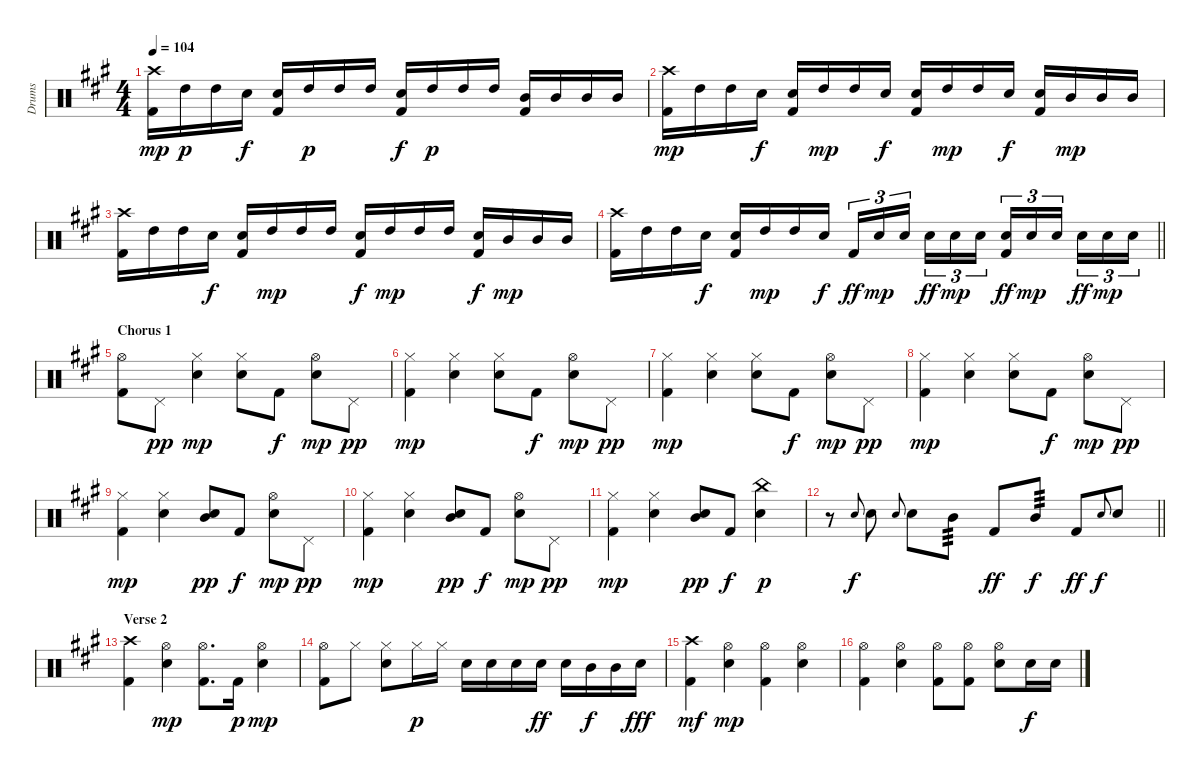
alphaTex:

\track ("Drums" "Drums") {instrument percussion}
\staff {score}
\articulation defaults
\ts (4 4)
\tempo 104
\clef neutral
\ks a
("Crash high (hit)" "Kick (hit) 2").16{dy mp} "High Tom (hit)".16{dy p} "High Tom (hit)".16 "Electric Snare (hit)".16{dy f} ("Electric Snare (hit)" "Kick (hit) 2").16 "High Tom (hit)".16{dy p} "High Tom (hit)".16 "High Tom (hit)".16 ("Electric Snare (hit)" "Kick (hit) 2").16{dy f} "High Tom (hit)".16{dy p} "High Tom (hit)".16 "High Tom (hit)".16 ("Mid Tom (hit)" "Kick (hit) 2").16 "Mid Tom (hit)".16 "Mid Tom (hit)".16 "Mid Tom (hit)".16 |
("Crash high (hit)" "Kick (hit) 2").16{dy mp} "High Tom (hit)".16 "High Tom (hit)".16 "Electric Snare (hit)".16{dy f} ("Electric Snare (hit)" "Kick (hit) 2").16 "High Tom (hit)".16{dy mp} "High Tom (hit)".16 "Electric Snare (hit)".16{dy f} ("Electric Snare (hit)" "Kick (hit) 2").16 "High Tom (hit)".16{dy mp} "High Tom (hit)".16 "Electric Snare (hit)".16{dy f} ("Electric Snare (hit)" "Kick (hit) 2").16 "Mid Tom (hit)".16{dy mp} "Mid Tom (hit)".16 "Mid Tom (hit)".16 |
("Crash high (hit)" "Kick (hit) 2").16 "High Tom (hit)".16 "High Tom (hit)".16 "Electric Snare (hit)".16{dy f} ("Electric Snare (hit)" "Kick (hit) 2").16 "High Tom (hit)".16{dy mp} "High Tom (hit)".16 "High Tom (hit)".16 ("Electric Snare (hit)" "Kick (hit) 2").16{dy f} "High Tom (hit)".16{dy mp} "High Tom (hit)".16 "High Tom (hit)".16 ("Electric Snare (hit)" "Kick (hit) 2").16{dy f} "Mid Tom (hit)".16{dy mp} "Mid Tom (hit)".16 "Mid Tom (hit)".16 |
\barLineRight lightlight
("Crash high (hit)" "Kick (hit) 2").16 "High Tom (hit)".16 "High Tom (hit)".16 "Electric Snare (hit)".16{dy f} ("Electric Snare (hit)" "Kick (hit) 2").16 "High Tom (hit)".16{dy mp} "High Tom (hit)".16 "Electric Snare (hit)".16{dy f} "Kick (hit) 2".16{tu (3 2) dy ff} "Electric Snare (hit)".16{tu (3 2) dy mp} "Electric Snare (hit)".16{tu (3 2) beam splitsecondary} "Electric Snare (hit)".16{tu (3 2) dy ff} "Electric Snare (hit)".16{tu (3 2) dy mp} "Electric Snare (hit)".16{tu (3 2)} ("Electric Snare (hit)" "Kick (hit) 2").16{tu (3 2) dy ff} "Electric Snare (hit)".16{tu (3 2) dy mp} "Electric Snare (hit)".16{tu (3 2) beam splitsecondary} "Electric Snare (hit)".16{tu (3 2) dy ff} "Electric Snare (hit)".16{tu (3 2) dy mp} "Electric Snare (hit)".16{tu (3 2)} |
\section ("" "Chorus 1")
("Hi-Hat (open)" "Kick (hit) 2").8 "Pedal Hi-Hat (hit)".8{dy pp} ("Electric Snare (hit)" "Hi-Hat (closed)").4{dy mp} ("Electric Snare (hit)" "Hi-Hat (closed)").8 "Kick (hit) 2".8{dy f} ("Electric Snare (hit)" "Hi-Hat (open)").8{dy mp} "Pedal Hi-Hat (hit)".8{dy pp} |
("Hi-Hat (closed)" "Kick (hit) 2").4{dy mp} ("Electric Snare (hit)" "Hi-Hat (closed)").4 ("Electric Snare (hit)" "Hi-Hat (closed)").8 "Kick (hit) 2".8{dy f} ("Electric Snare (hit)" "Hi-Hat (open)").8{dy mp} "Pedal Hi-Hat (hit)".8{dy pp} |
("Hi-Hat (closed)" "Kick (hit) 2").4{dy mp} ("Electric Snare (hit)" "Hi-Hat (closed)").4 ("Electric Snare (hit)" "Hi-Hat (closed)").8 "Kick (hit) 2".8{dy f} ("Electric Snare (hit)" "Hi-Hat (open)").8{dy mp} "Pedal Hi-Hat (hit)".8{dy pp} |
("Hi-Hat (closed)" "Kick (hit) 2").4{dy mp} ("Electric Snare (hit)" "Hi-Hat (closed)").4 ("Electric Snare (hit)" "Hi-Hat (closed)").8 "Kick (hit) 2".8{dy f} ("Electric Snare (hit)" "Hi-Hat (open)").8{dy mp} "Pedal Hi-Hat (hit)".8{dy pp} |
("Hi-Hat (closed)" "Kick (hit) 2").4{dy mp} ("Electric Snare (hit)" "Hi-Hat (closed)").4 ("Electric Snare (hit)" "Mid Tom (hit)").8{dy pp} "Kick (hit) 2".8{dy f} ("Electric Snare (hit)" "Hi-Hat (open)").8{dy mp} "Pedal Hi-Hat (hit)".8{dy pp} |
("Hi-Hat (closed)" "Kick (hit) 2").4{dy mp} ("Electric Snare (hit)" "Hi-Hat (closed)").4 ("Electric Snare (hit)" "Mid Tom (hit)").8{dy pp} "Kick (hit) 2".8{dy f} ("Electric Snare (hit)" "Hi-Hat (open)").8{dy mp} "Pedal Hi-Hat (hit)".8{dy pp} |
("Hi-Hat (closed)" "Kick (hit) 2").4{dy mp} ("Electric Snare (hit)" "Hi-Hat (closed)").4 ("Electric Snare (hit)" "Mid Tom (hit)").8{dy pp} "Kick (hit) 2".8{dy f} ("Electric Snare (hit)" "China (hit)").4{dy p} |
\barLineRight lightlight
r.8 "Electric Snare (hit)".8{gr onbeat dy f} "Electric Snare (hit)".8 "Electric Snare (hit)".8{gr onbeat} "Electric Snare (hit)".8 "Mid Tom (hit)".8{tp 3} "Kick (hit) 2".8{dy ff} "Mid Tom (hit)".8{tp 3 dy f} "Kick (hit) 2".8{dy ff} "Electric Snare (hit)".8{gr onbeat dy f} "Electric Snare (hit)".8 |
\section ("" "Verse 2")
("Kick (hit) 2" "Crash high (hit)").4 ("Hi-Hat (open)" "Electric Snare (hit)").4{dy mp} ("Hi-Hat (open)" "Kick (hit) 2").8{d} "Kick (hit) 2".16{dy p} ("Hi-Hat (open)" "Electric Snare (hit)").4{dy mp} |
("Hi-Hat (open)" "Kick (hit) 2").8 "Hi-Hat (closed)".8 ("Hi-Hat (closed)" "Electric Snare (hit)").8 "Hi-Hat (closed)".16{dy p} "Hi-Hat (closed)".16 "Electric Snare (hit)".16 "Electric Snare (hit)".16 "Electric Snare (hit)".16 "Electric Snare (hit)".16{dy ff} "Electric Snare (hit)".16 "Mid Tom (hit)".16{dy f} "Mid Tom (hit)".16 "Electric Snare (hit)".16{dy fff} |
("Kick (hit) 2" "Crash high (hit)").4{dy mf} ("Hi-Hat (open)" "Electric Snare (hit)").4{dy mp} ("Hi-Hat (open)" "Kick (hit) 2").4 ("Hi-Hat (open)" "Electric Snare (hit)").4 |
("Hi-Hat (open)" "Kick (hit) 2").4 ("Hi-Hat (open)" "Electric Snare (hit)").4 ("Hi-Hat (open)" "Kick (hit) 2").8 ("Hi-Hat (open)" "Kick (hit) 2").8 ("Hi-Hat (open)" "Electric Snare (hit)").8 "Electric Snare (hit)".16{dy f} "Electric Snare (hit)".16
